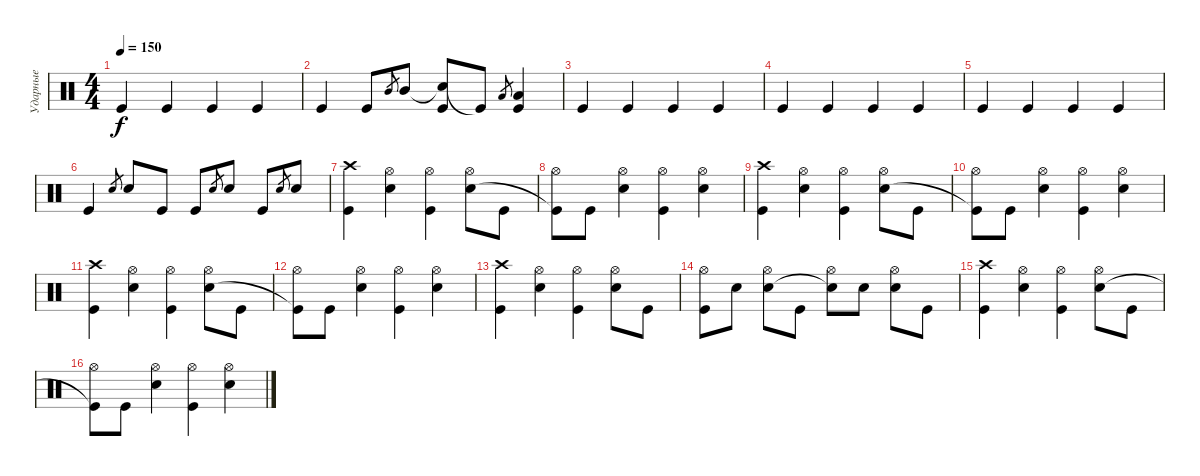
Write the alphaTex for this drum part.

\track ("Ударные" "Ударные") {instrument percussion}
\staff {score}
\articulation defaults
\ts (4 4)
\tempo 150
\clef neutral
\ks c "Kick (hit)".4{dy f} "Kick (hit)".4 "Kick (hit)".4 "Kick (hit)".4
|
"Kick (hit)".4 "Kick (hit)".8 "Mid Tom (hit)".8{gr} "Mid Tom (hit)".8 ("Snare (hit)"{t} "Kick (hit)").8 "Kick (hit)"{t}.8 "Low Tom (hit)".8{gr} ("Low Tom (hit)" "Kick (hit)").4 |
"Kick (hit)".4 "Kick (hit)".4 "Kick (hit)".4 "Kick (hit)".4 |
"Kick (hit)".4 "Kick (hit)".4 "Kick (hit)".4 "Kick (hit)".4 |
"Kick (hit)".4 "Kick (hit)".4 "Kick (hit)".4 "Kick (hit)".4 |
"Kick (hit)".4 "Snare (hit) 2".8{gr} "Snare (hit) 2".8 "Kick (hit)".8 "Kick (hit)".8 "Snare (hit) 2".8{gr} "Snare (hit) 2".8 "Kick (hit)".8 "Snare (hit) 2".8{gr} "Snare (hit) 2".8 |
("Crash high (hit)" "Kick (hit)").4 ("Hi-Hat (open)" "Snare (hit) 2").4 ("Hi-Hat (open)" "Kick (hit)").4 ("Hi-Hat (open)" "Snare (hit) 2").8 "Kick (hit)".8 |
("Hi-Hat (open)" "Kick (hit)"{t}).8 "Kick (hit)".8 ("Hi-Hat (open)" "Snare (hit) 2").4 ("Hi-Hat (open)" "Kick (hit)").4 ("Hi-Hat (open)" "Snare (hit) 2").4 |
("Crash high (hit)" "Kick (hit)").4 ("Hi-Hat (open)" "Snare (hit) 2").4 ("Hi-Hat (open)" "Kick (hit)").4 ("Hi-Hat (open)" "Snare (hit) 2").8 "Kick (hit)".8 |
("Hi-Hat (open)" "Kick (hit)"{t}).8 "Kick (hit)".8 ("Hi-Hat (open)" "Snare (hit) 2").4 ("Hi-Hat (open)" "Kick (hit)").4 ("Hi-Hat (open)" "Snare (hit) 2").4 |
("Crash high (hit)" "Kick (hit)").4 ("Hi-Hat (open)" "Snare (hit) 2").4 ("Hi-Hat (open)" "Kick (hit)").4 ("Hi-Hat (open)" "Snare (hit) 2").8 "Kick (hit)".8 |
("Hi-Hat (open)" "Kick (hit)"{t}).8 "Kick (hit)".8 ("Hi-Hat (open)" "Snare (hit) 2").4 ("Hi-Hat (open)" "Kick (hit)").4 ("Hi-Hat (open)" "Snare (hit) 2").4 |
("Crash high (hit)" "Kick (hit)").4 ("Hi-Hat (open)" "Snare (hit) 2").4 ("Hi-Hat (open)" "Kick (hit)").4 ("Hi-Hat (open)" "Snare (hit) 2").8 "Kick (hit)".8 |
("Hi-Hat (open)" "Kick (hit)").8 "Snare (hit) 2".8 ("Hi-Hat (open)" "Snare (hit) 2").8 "Kick (hit)".8 ("Hi-Hat (open)" "Snare (hit)"{t}).8 "Snare (hit) 2".8 ("Hi-Hat (open)" "Snare (hit) 2").8 "Kick (hit)".8 |
("Crash high (hit)" "Kick (hit)").4 ("Hi-Hat (open)" "Snare (hit) 2").4 ("Hi-Hat (open)" "Kick (hit)").4 ("Hi-Hat (open)" "Snare (hit) 2").8 "Kick (hit)".8 |
("Hi-Hat (open)" "Kick (hit)"{t}).8 "Kick (hit)".8 ("Hi-Hat (open)" "Snare (hit) 2").4 ("Hi-Hat (open)" "Kick (hit)").4 ("Hi-Hat (open)" "Snare (hit) 2").4
